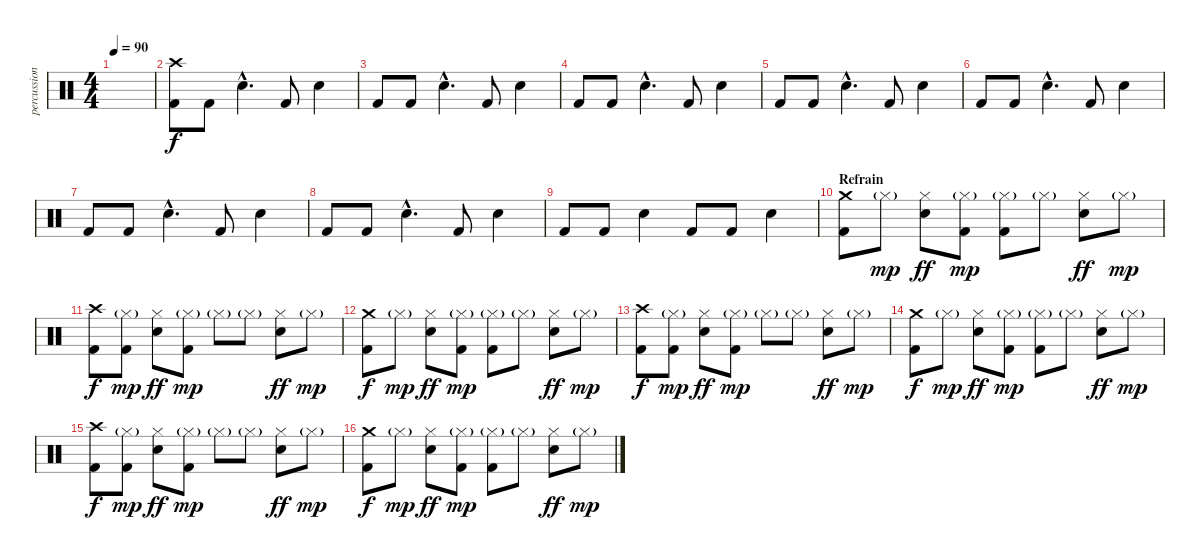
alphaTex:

\track ("percussion" "percussion") {instrument percussion}
\staff {score}
\articulation defaults
\ts (4 4)
\tempo 90
\clef neutral
\ks c
|
("Crash high (hit)" "Kick (hit) 2").8 "Kick (hit) 2".8 "Electric Snare (hit)"{hac}.4{d} "Kick (hit) 2".8 "Electric Snare (hit)".4 |
"Kick (hit) 2".8 "Kick (hit) 2".8 "Electric Snare (hit)"{hac}.4{d} "Kick (hit) 2".8 "Electric Snare (hit)".4 |
"Kick (hit) 2".8 "Kick (hit) 2".8 "Electric Snare (hit)"{hac}.4{d} "Kick (hit) 2".8 "Electric Snare (hit)".4 |
"Kick (hit) 2".8 "Kick (hit) 2".8 "Electric Snare (hit)"{hac}.4{d} "Kick (hit) 2".8 "Electric Snare (hit)".4 |
"Kick (hit) 2".8 "Kick (hit) 2".8 "Electric Snare (hit)"{hac}.4{d} "Kick (hit) 2".8 "Electric Snare (hit)".4 |
"Kick (hit) 2".8 "Kick (hit) 2".8 "Electric Snare (hit)"{hac}.4{d} "Kick (hit) 2".8 "Electric Snare (hit)".4 |
"Kick (hit) 2".8 "Kick (hit) 2".8 "Electric Snare (hit)"{hac}.4{d} "Kick (hit) 2".8 "Electric Snare (hit)".4 |
"Kick (hit) 2".8 "Kick (hit) 2".8 "Electric Snare (hit)".4 "Kick (hit) 2".8 "Kick (hit) 2".8 "Electric Snare (hit)".4 |
\section ("" "Refrain")
("Crash medium (hit)" "Kick (hit) 2").8 "Hi-Hat (closed)"{g}.8{dy mp} ("Hi-Hat (closed)" "Electric Snare (hit)").8{dy ff} ("Hi-Hat (closed)"{g} "Kick (hit) 2").8{dy mp} ("Hi-Hat (closed)"{g} "Kick (hit) 2").8 "Hi-Hat (closed)"{g}.8 ("Hi-Hat (closed)" "Electric Snare (hit)").8{dy ff} "Hi-Hat (closed)"{g}.8{dy mp} |
("Crash high (hit)" "Kick (hit) 2").8{dy f} ("Hi-Hat (closed)"{g} "Kick (hit) 2").8{dy mp} ("Hi-Hat (closed)" "Electric Snare (hit)").8{dy ff} ("Hi-Hat (closed)"{g} "Kick (hit) 2").8{dy mp} "Hi-Hat (closed)"{g}.8 "Hi-Hat (closed)"{g}.8 ("Hi-Hat (closed)" "Electric Snare (hit)").8{dy ff} "Hi-Hat (closed)"{g}.8{dy mp} |
("Crash medium (hit)" "Kick (hit) 2").8{dy f} "Hi-Hat (closed)"{g}.8{dy mp} ("Hi-Hat (closed)" "Electric Snare (hit)").8{dy ff} ("Hi-Hat (closed)"{g} "Kick (hit) 2").8{dy mp} ("Hi-Hat (closed)"{g} "Kick (hit) 2").8 "Hi-Hat (closed)"{g}.8 ("Hi-Hat (closed)" "Electric Snare (hit)").8{dy ff} "Hi-Hat (closed)"{g}.8{dy mp} |
("Crash high (hit)" "Kick (hit) 2").8{dy f} ("Hi-Hat (closed)"{g} "Kick (hit) 2").8{dy mp} ("Hi-Hat (closed)" "Electric Snare (hit)").8{dy ff} ("Hi-Hat (closed)"{g} "Kick (hit) 2").8{dy mp} "Hi-Hat (closed)"{g}.8 "Hi-Hat (closed)"{g}.8 ("Hi-Hat (closed)" "Electric Snare (hit)").8{dy ff} "Hi-Hat (closed)"{g}.8{dy mp} |
("Crash medium (hit)" "Kick (hit) 2").8{dy f} "Hi-Hat (closed)"{g}.8{dy mp} ("Hi-Hat (closed)" "Electric Snare (hit)").8{dy ff} ("Hi-Hat (closed)"{g} "Kick (hit) 2").8{dy mp} ("Hi-Hat (closed)"{g} "Kick (hit) 2").8 "Hi-Hat (closed)"{g}.8 ("Hi-Hat (closed)" "Electric Snare (hit)").8{dy ff} "Hi-Hat (closed)"{g}.8{dy mp} |
("Crash high (hit)" "Kick (hit) 2").8{dy f} ("Hi-Hat (closed)"{g} "Kick (hit) 2").8{dy mp} ("Hi-Hat (closed)" "Electric Snare (hit)").8{dy ff} ("Hi-Hat (closed)"{g} "Kick (hit) 2").8{dy mp} "Hi-Hat (closed)"{g}.8 "Hi-Hat (closed)"{g}.8 ("Hi-Hat (closed)" "Electric Snare (hit)").8{dy ff} "Hi-Hat (closed)"{g}.8{dy mp} |
("Crash medium (hit)" "Kick (hit) 2").8{dy f} "Hi-Hat (closed)"{g}.8{dy mp} ("Hi-Hat (closed)" "Electric Snare (hit)").8{dy ff} ("Hi-Hat (closed)"{g} "Kick (hit) 2").8{dy mp} ("Hi-Hat (closed)"{g} "Kick (hit) 2").8 "Hi-Hat (closed)"{g}.8 ("Hi-Hat (closed)" "Electric Snare (hit)").8{dy ff} "Hi-Hat (closed)"{g}.8{dy mp}
